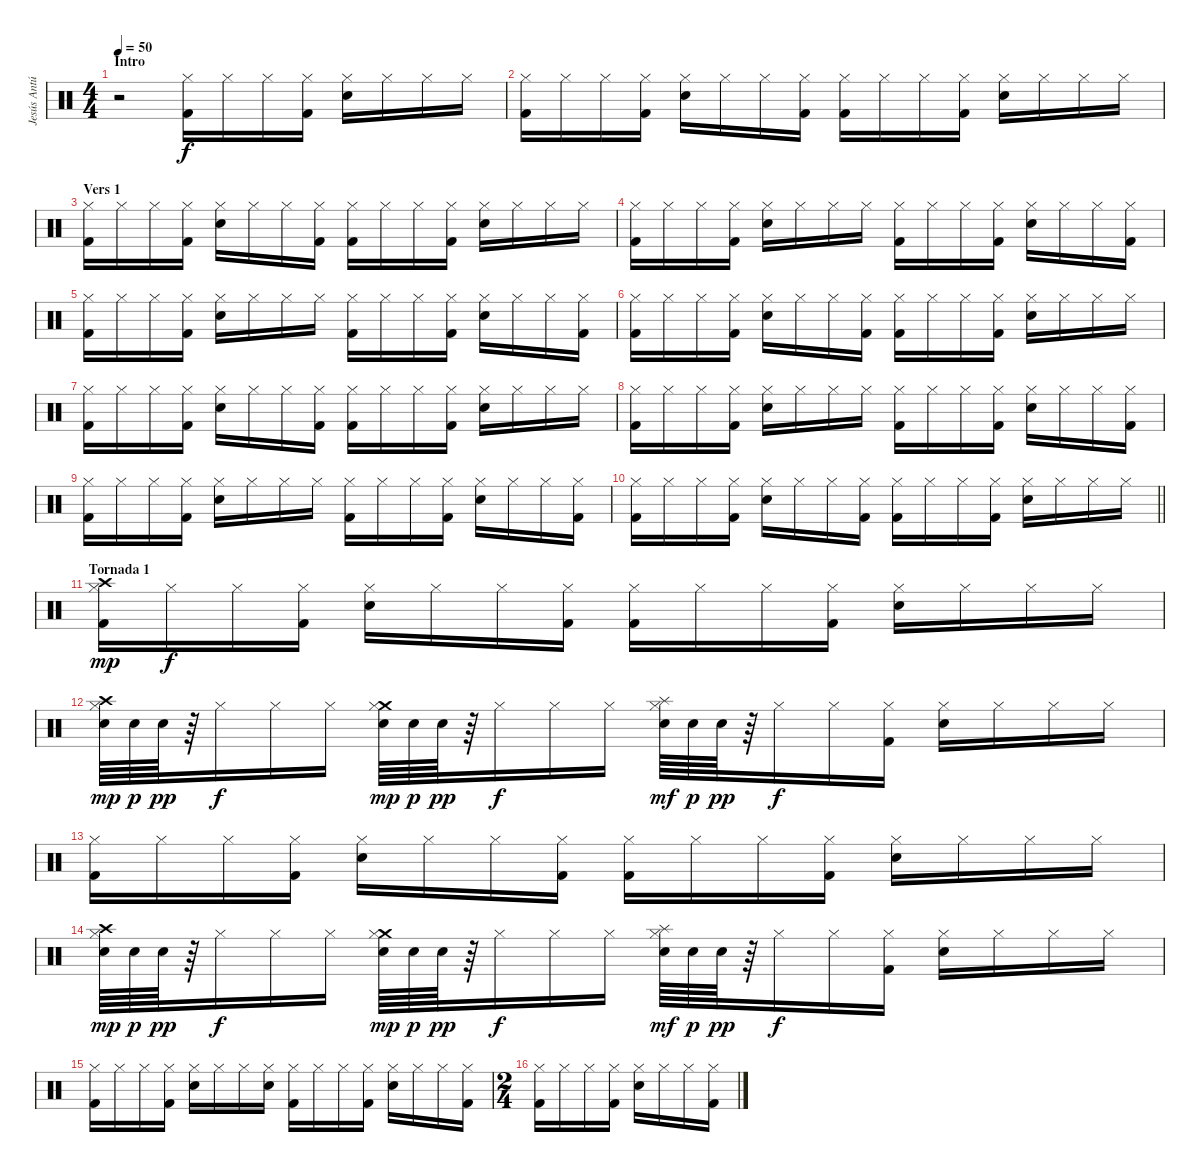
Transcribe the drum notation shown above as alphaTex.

\track ("Jesús Antúnez (Bateria)" "Jesús Antú") {instrument percussion}
\staff {score}
\articulation defaults
\ts (4 4)
\section ("" "Intro")
\tempo 50
\clef neutral
\ks c
r.2{dy f} ("Hi-Hat (closed)" "Kick (hit) 2").16 "Hi-Hat (closed)".16 "Hi-Hat (closed)".16 ("Hi-Hat (closed)" "Kick (hit) 2").16 ("Hi-Hat (closed)" "Snare (hit) 2").16 "Hi-Hat (closed)".16 "Hi-Hat (closed)".16 "Hi-Hat (closed)".16 |
("Hi-Hat (closed)" "Kick (hit) 2").16 "Hi-Hat (closed)".16 "Hi-Hat (closed)".16 ("Hi-Hat (closed)" "Kick (hit) 2").16 ("Hi-Hat (closed)" "Snare (hit) 2").16 "Hi-Hat (closed)".16 "Hi-Hat (closed)".16 ("Hi-Hat (closed)" "Kick (hit) 2").16 ("Hi-Hat (closed)" "Kick (hit) 2").16 "Hi-Hat (closed)".16 "Hi-Hat (closed)".16 ("Hi-Hat (closed)" "Kick (hit) 2").16 ("Hi-Hat (closed)" "Snare (hit) 2").16 "Hi-Hat (closed)".16 "Hi-Hat (closed)".16 "Hi-Hat (closed)".16 |
\section ("" "Vers 1")
("Hi-Hat (closed)" "Kick (hit) 2").16 "Hi-Hat (closed)".16 "Hi-Hat (closed)".16 ("Hi-Hat (closed)" "Kick (hit) 2").16 ("Hi-Hat (closed)" "Snare (hit) 2").16 "Hi-Hat (closed)".16 "Hi-Hat (closed)".16 ("Hi-Hat (closed)" "Kick (hit) 2").16 ("Hi-Hat (closed)" "Kick (hit) 2").16 "Hi-Hat (closed)".16 "Hi-Hat (closed)".16 ("Hi-Hat (closed)" "Kick (hit) 2").16 ("Hi-Hat (closed)" "Snare (hit) 2").16 "Hi-Hat (closed)".16 "Hi-Hat (closed)".16 "Hi-Hat (closed)".16 |
("Hi-Hat (closed)" "Kick (hit) 2").16 "Hi-Hat (closed)".16 "Hi-Hat (closed)".16 ("Hi-Hat (closed)" "Kick (hit) 2").16 ("Hi-Hat (closed)" "Snare (hit) 2").16 "Hi-Hat (closed)".16 "Hi-Hat (closed)".16 "Hi-Hat (closed)".16 ("Hi-Hat (closed)" "Kick (hit) 2").16 "Hi-Hat (closed)".16 "Hi-Hat (closed)".16 ("Hi-Hat (closed)" "Kick (hit) 2").16 ("Hi-Hat (closed)" "Snare (hit) 2").16 "Hi-Hat (closed)".16 "Hi-Hat (closed)".16 ("Hi-Hat (closed)" "Kick (hit) 2").16 |
("Hi-Hat (closed)" "Kick (hit) 2").16 "Hi-Hat (closed)".16 "Hi-Hat (closed)".16 ("Hi-Hat (closed)" "Kick (hit) 2").16 ("Hi-Hat (closed)" "Snare (hit) 2").16 "Hi-Hat (closed)".16 "Hi-Hat (closed)".16 "Hi-Hat (closed)".16 ("Hi-Hat (closed)" "Kick (hit) 2").16 "Hi-Hat (closed)".16 "Hi-Hat (closed)".16 ("Hi-Hat (closed)" "Kick (hit) 2").16 ("Hi-Hat (closed)" "Snare (hit) 2").16 "Hi-Hat (closed)".16 "Hi-Hat (closed)".16 ("Hi-Hat (closed)" "Kick (hit) 2").16 |
("Hi-Hat (closed)" "Kick (hit) 2").16 "Hi-Hat (closed)".16 "Hi-Hat (closed)".16 ("Hi-Hat (closed)" "Kick (hit) 2").16 ("Hi-Hat (closed)" "Snare (hit) 2").16 "Hi-Hat (closed)".16 "Hi-Hat (closed)".16 ("Hi-Hat (closed)" "Kick (hit) 2").16 ("Hi-Hat (closed)" "Kick (hit) 2").16 "Hi-Hat (closed)".16 "Hi-Hat (closed)".16 ("Hi-Hat (closed)" "Kick (hit) 2").16 ("Hi-Hat (closed)" "Snare (hit) 2").16 "Hi-Hat (closed)".16 "Hi-Hat (closed)".16 "Hi-Hat (closed)".16 |
("Hi-Hat (closed)" "Kick (hit) 2").16 "Hi-Hat (closed)".16 "Hi-Hat (closed)".16 ("Hi-Hat (closed)" "Kick (hit) 2").16 ("Hi-Hat (closed)" "Snare (hit) 2").16 "Hi-Hat (closed)".16 "Hi-Hat (closed)".16 ("Hi-Hat (closed)" "Kick (hit) 2").16 ("Hi-Hat (closed)" "Kick (hit) 2").16 "Hi-Hat (closed)".16 "Hi-Hat (closed)".16 ("Hi-Hat (closed)" "Kick (hit) 2").16 ("Hi-Hat (closed)" "Snare (hit) 2").16 "Hi-Hat (closed)".16 "Hi-Hat (closed)".16 "Hi-Hat (closed)".16 |
("Hi-Hat (closed)" "Kick (hit) 2").16 "Hi-Hat (closed)".16 "Hi-Hat (closed)".16 ("Hi-Hat (closed)" "Kick (hit) 2").16 ("Hi-Hat (closed)" "Snare (hit) 2").16 "Hi-Hat (closed)".16 "Hi-Hat (closed)".16 "Hi-Hat (closed)".16 ("Hi-Hat (closed)" "Kick (hit) 2").16 "Hi-Hat (closed)".16 "Hi-Hat (closed)".16 ("Hi-Hat (closed)" "Kick (hit) 2").16 ("Hi-Hat (closed)" "Snare (hit) 2").16 "Hi-Hat (closed)".16 "Hi-Hat (closed)".16 ("Hi-Hat (closed)" "Kick (hit) 2").16 |
("Hi-Hat (closed)" "Kick (hit) 2").16 "Hi-Hat (closed)".16 "Hi-Hat (closed)".16 ("Hi-Hat (closed)" "Kick (hit) 2").16 ("Hi-Hat (closed)" "Snare (hit) 2").16 "Hi-Hat (closed)".16 "Hi-Hat (closed)".16 "Hi-Hat (closed)".16 ("Hi-Hat (closed)" "Kick (hit) 2").16 "Hi-Hat (closed)".16 "Hi-Hat (closed)".16 ("Hi-Hat (closed)" "Kick (hit) 2").16 ("Hi-Hat (closed)" "Snare (hit) 2").16 "Hi-Hat (closed)".16 "Hi-Hat (closed)".16 ("Hi-Hat (closed)" "Kick (hit) 2").16 |
\barLineRight lightlight
("Hi-Hat (closed)" "Kick (hit) 2").16 "Hi-Hat (closed)".16 "Hi-Hat (closed)".16 ("Hi-Hat (closed)" "Kick (hit) 2").16 ("Hi-Hat (closed)" "Snare (hit) 2").16 "Hi-Hat (closed)".16 "Hi-Hat (closed)".16 ("Hi-Hat (closed)" "Kick (hit) 2").16 ("Hi-Hat (closed)" "Kick (hit) 2").16 "Hi-Hat (closed)".16 "Hi-Hat (closed)".16 ("Hi-Hat (closed)" "Kick (hit) 2").16 ("Hi-Hat (closed)" "Snare (hit) 2").16 "Hi-Hat (closed)".16 "Hi-Hat (closed)".16 "Hi-Hat (closed)".16 |
\section ("" "Tornada 1")
("Hi-Hat (closed)" "Crash high (hit)" "Kick (hit) 2").16{dy mp} "Hi-Hat (closed)".16{dy f} "Hi-Hat (closed)".16 ("Hi-Hat (closed)" "Kick (hit) 2").16 ("Hi-Hat (closed)" "Snare (hit) 2").16 "Hi-Hat (closed)".16 "Hi-Hat (closed)".16 ("Hi-Hat (closed)" "Kick (hit) 2").16 ("Hi-Hat (closed)" "Kick (hit) 2").16 "Hi-Hat (closed)".16 "Hi-Hat (closed)".16 ("Hi-Hat (closed)" "Kick (hit) 2").16 ("Hi-Hat (closed)" "Snare (hit) 2").16 "Hi-Hat (closed)".16 "Hi-Hat (closed)".16 "Hi-Hat (closed)".16 |
("Crash high (hit)" "Hi-Hat (closed)" "Snare (hit) 2").64{dy mp} "Snare (hit) 2".64{dy p} "Snare (hit) 2".64{dy pp} r.64 "Hi-Hat (closed)".16{dy f} "Hi-Hat (closed)".16 "Hi-Hat (closed)".16 ("Snare (hit) 2" "Crash medium (hit)" "Hi-Hat (closed)").64{dy mp} "Snare (hit) 2".64{dy p} "Snare (hit) 2".64{dy pp} r.64 "Hi-Hat (closed)".16{dy f} "Hi-Hat (closed)".16 "Hi-Hat (closed)".16 ("Hi-Hat (closed)" "Snare (hit) 2" "Splash (hit)").64{dy mf} "Snare (hit) 2".64{dy p} "Snare (hit) 2".64{dy pp} r.64 "Hi-Hat (closed)".16{dy f} "Hi-Hat (closed)".16 ("Hi-Hat (closed)" "Kick (hit) 2").16 ("Hi-Hat (closed)" "Snare (hit) 2").16 "Hi-Hat (closed)".16 "Hi-Hat (closed)".16 "Hi-Hat (closed)".16 |
("Hi-Hat (closed)" "Kick (hit) 2").16 "Hi-Hat (closed)".16 "Hi-Hat (closed)".16 ("Hi-Hat (closed)" "Kick (hit) 2").16 ("Hi-Hat (closed)" "Snare (hit) 2").16 "Hi-Hat (closed)".16 "Hi-Hat (closed)".16 ("Hi-Hat (closed)" "Kick (hit) 2").16 ("Hi-Hat (closed)" "Kick (hit) 2").16 "Hi-Hat (closed)".16 "Hi-Hat (closed)".16 ("Hi-Hat (closed)" "Kick (hit) 2").16 ("Hi-Hat (closed)" "Snare (hit) 2").16 "Hi-Hat (closed)".16 "Hi-Hat (closed)".16 "Hi-Hat (closed)".16 |
("Crash high (hit)" "Hi-Hat (closed)" "Snare (hit) 2").64{dy mp} "Snare (hit) 2".64{dy p} "Snare (hit) 2".64{dy pp} r.64 "Hi-Hat (closed)".16{dy f} "Hi-Hat (closed)".16 "Hi-Hat (closed)".16 ("Snare (hit) 2" "Crash medium (hit)" "Hi-Hat (closed)").64{dy mp} "Snare (hit) 2".64{dy p} "Snare (hit) 2".64{dy pp} r.64 "Hi-Hat (closed)".16{dy f} "Hi-Hat (closed)".16 "Hi-Hat (closed)".16 ("Hi-Hat (closed)" "Snare (hit) 2" "Splash (hit)").64{dy mf} "Snare (hit) 2".64{dy p} "Snare (hit) 2".64{dy pp} r.64 "Hi-Hat (closed)".16{dy f} "Hi-Hat (closed)".16 ("Hi-Hat (closed)" "Kick (hit) 2").16 ("Hi-Hat (closed)" "Snare (hit) 2").16 "Hi-Hat (closed)".16 "Hi-Hat (closed)".16 "Hi-Hat (closed)".16 |
("Hi-Hat (closed)" "Kick (hit) 2").16 "Hi-Hat (closed)".16 "Hi-Hat (closed)".16 ("Hi-Hat (closed)" "Kick (hit) 2").16 ("Hi-Hat (closed)" "Snare (hit) 2").16 "Hi-Hat (closed)".16 "Hi-Hat (closed)".16 ("Hi-Hat (closed)" "Snare (hit) 2").16 ("Hi-Hat (closed)" "Kick (hit) 2").16 "Hi-Hat (closed)".16 "Hi-Hat (closed)".16 ("Hi-Hat (closed)" "Kick (hit) 2").16 ("Hi-Hat (closed)" "Snare (hit) 2").16 "Hi-Hat (closed)".16 "Hi-Hat (closed)".16 ("Hi-Hat (closed)" "Kick (hit) 2").16 |
\ts (2 4)
("Hi-Hat (closed)" "Kick (hit) 2").16 "Hi-Hat (closed)".16 "Hi-Hat (closed)".16 ("Hi-Hat (closed)" "Kick (hit) 2").16 ("Hi-Hat (closed)" "Snare (hit) 2").16 "Hi-Hat (closed)".16 "Hi-Hat (closed)".16 ("Hi-Hat (closed)" "Kick (hit) 2").16
